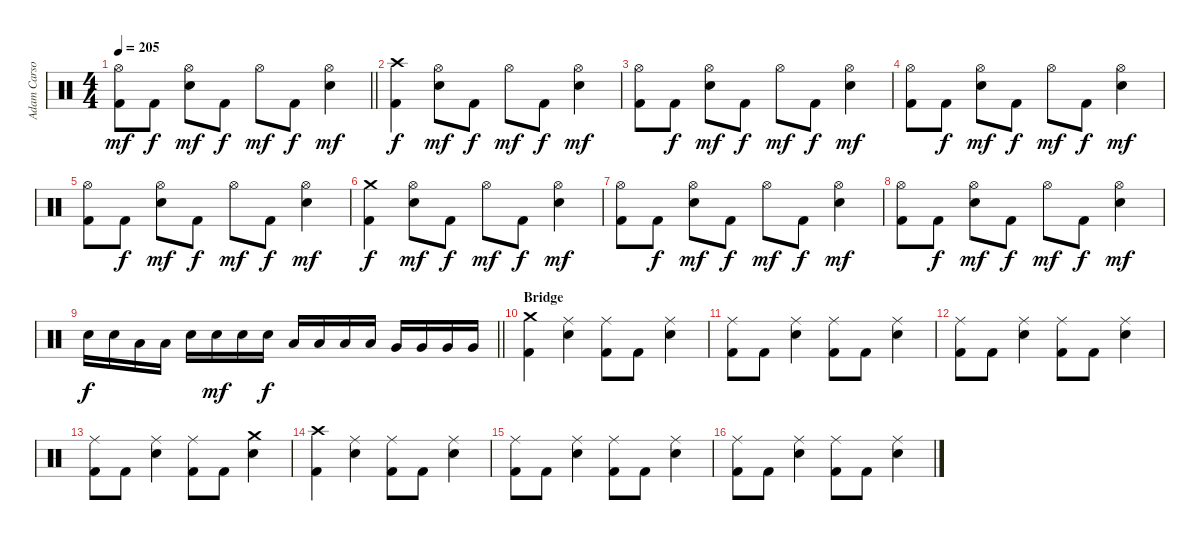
\track ("Adam Carson" "Adam Carso") {instrument percussion}
\staff {score}
\articulation defaults
\ts (4 4)
\tempo 205
\clef neutral
\barLineRight lightlight
\ks aminor
("Hi-Hat (open)" "Kick (hit) 2").8{dy mf} "Kick (hit) 2".8{dy f} ("Hi-Hat (open)" "Snare (hit) 2").8{dy mf} "Kick (hit) 2".8{dy f} "Hi-Hat (open)".8{dy mf} "Kick (hit) 2".8{dy f} ("Hi-Hat (open)" "Snare (hit) 2").4{dy mf} |
("Crash high (hit)" "Kick (hit) 2").4{dy f} ("Hi-Hat (open)" "Snare (hit) 2").8{dy mf} "Kick (hit) 2".8{dy f} "Hi-Hat (open)".8{dy mf} "Kick (hit) 2".8{dy f} ("Hi-Hat (open)" "Snare (hit) 2").4{dy mf} |
("Hi-Hat (open)" "Kick (hit) 2").8 "Kick (hit) 2".8{dy f} ("Hi-Hat (open)" "Snare (hit) 2").8{dy mf} "Kick (hit) 2".8{dy f} "Hi-Hat (open)".8{dy mf} "Kick (hit) 2".8{dy f} ("Hi-Hat (open)" "Snare (hit) 2").4{dy mf} |
("Hi-Hat (open)" "Kick (hit) 2").8 "Kick (hit) 2".8{dy f} ("Hi-Hat (open)" "Snare (hit) 2").8{dy mf} "Kick (hit) 2".8{dy f} "Hi-Hat (open)".8{dy mf} "Kick (hit) 2".8{dy f} ("Hi-Hat (open)" "Snare (hit) 2").4{dy mf} |
("Hi-Hat (open)" "Kick (hit) 2").8 "Kick (hit) 2".8{dy f} ("Hi-Hat (open)" "Snare (hit) 2").8{dy mf} "Kick (hit) 2".8{dy f} "Hi-Hat (open)".8{dy mf} "Kick (hit) 2".8{dy f} ("Hi-Hat (open)" "Snare (hit) 2").4{dy mf} |
("Crash medium (hit)" "Kick (hit) 2").4{dy f} ("Hi-Hat (open)" "Snare (hit) 2").8{dy mf} "Kick (hit) 2".8{dy f} "Hi-Hat (open)".8{dy mf} "Kick (hit) 2".8{dy f} ("Hi-Hat (open)" "Snare (hit) 2").4{dy mf} |
("Hi-Hat (open)" "Kick (hit) 2").8 "Kick (hit) 2".8{dy f} ("Hi-Hat (open)" "Snare (hit) 2").8{dy mf} "Kick (hit) 2".8{dy f} "Hi-Hat (open)".8{dy mf} "Kick (hit) 2".8{dy f} ("Hi-Hat (open)" "Snare (hit) 2").4{dy mf} |
("Hi-Hat (open)" "Kick (hit) 2").8 "Kick (hit) 2".8{dy f} ("Hi-Hat (open)" "Snare (hit) 2").8{dy mf} "Kick (hit) 2".8{dy f} "Hi-Hat (open)".8{dy mf} "Kick (hit) 2".8{dy f} ("Hi-Hat (open)" "Snare (hit) 2").4{dy mf} |
\barLineRight lightlight "Snare (hit) 2".16{dy f} "Snare (hit) 2".16 "Low Tom (hit)".16 "Low Tom (hit)".16 "Snare (hit) 2".16 "Snare (hit) 2".16{dy mf} "Snare (hit) 2".16 "Snare (hit) 2".16{dy f} "Low Tom (hit)".16 "Low Tom (hit)".16 "Low Tom (hit)".16 "Low Tom (hit)".16 "Very Low Tom (hit)".16 "Very Low Tom (hit)".16 "Very Low Tom (hit)".16 "Very Low Tom (hit)".16
|
\section ("" "Bridge")
("Crash medium (hit)" "Kick (hit) 2").4 ("Ride (middle)" "Snare (hit) 2").4 ("Ride (middle)" "Kick (hit) 2").8 "Kick (hit) 2".8 ("Ride (middle)" "Snare (hit) 2").4 |
("Ride (middle)" "Kick (hit) 2").8 "Kick (hit) 2".8 ("Ride (middle)" "Snare (hit) 2").4 ("Ride (middle)" "Kick (hit) 2").8 "Kick (hit) 2".8 ("Ride (middle)" "Snare (hit) 2").4 |
("Ride (middle)" "Kick (hit) 2").8 "Kick (hit) 2".8 ("Ride (middle)" "Snare (hit) 2").4 ("Ride (middle)" "Kick (hit) 2").8 "Kick (hit) 2".8 ("Ride (middle)" "Snare (hit) 2").4 |
("Ride (middle)" "Kick (hit) 2").8 "Kick (hit) 2".8 ("Ride (middle)" "Snare (hit) 2").4 ("Ride (middle)" "Kick (hit) 2").8 "Kick (hit) 2".8 ("Crash medium (hit)" "Snare (hit) 2").4 |
("Crash high (hit)" "Kick (hit) 2").4 ("Ride (middle)" "Snare (hit) 2").4 ("Ride (middle)" "Kick (hit) 2").8 "Kick (hit) 2".8 ("Ride (middle)" "Snare (hit) 2").4 |
("Ride (middle)" "Kick (hit) 2").8 "Kick (hit) 2".8 ("Ride (middle)" "Snare (hit) 2").4 ("Ride (middle)" "Kick (hit) 2").8 "Kick (hit) 2".8 ("Ride (middle)" "Snare (hit) 2").4 |
("Ride (middle)" "Kick (hit) 2").8 "Kick (hit) 2".8 ("Ride (middle)" "Snare (hit) 2").4 ("Ride (middle)" "Kick (hit) 2").8 "Kick (hit) 2".8 ("Ride (middle)" "Snare (hit) 2").4
